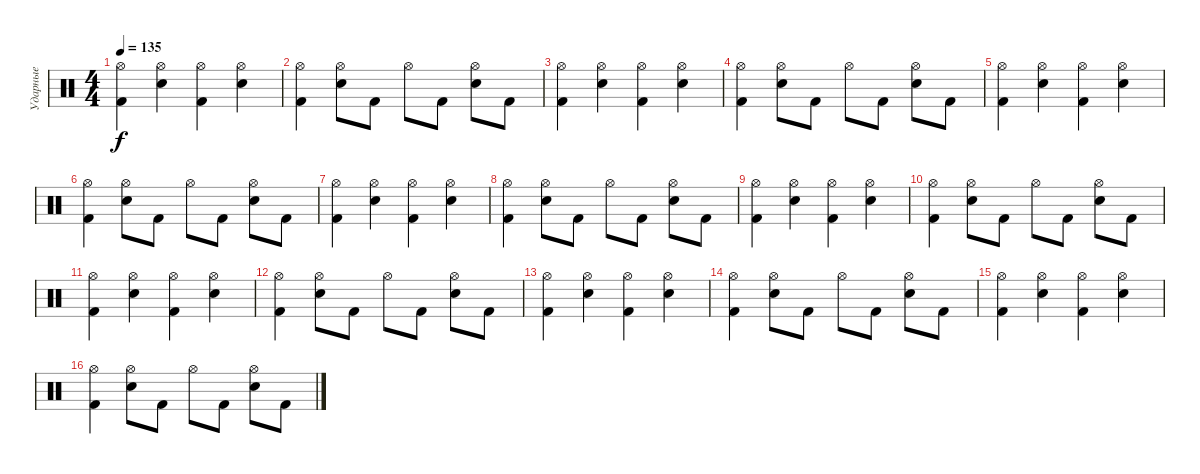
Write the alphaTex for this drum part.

\track ("Ударные" "Ударные") {instrument percussion}
\staff {score}
\articulation defaults
\ts (4 4)
\tempo 135
\clef neutral
\ks c
("Kick (hit) 2" "Hi-Hat (open)").4{dy f} ("Electric Snare (hit)" "Hi-Hat (open)").4 ("Kick (hit) 2" "Hi-Hat (open)").4 ("Electric Snare (hit)" "Hi-Hat (open)").4 |
("Kick (hit) 2" "Hi-Hat (open)").4 ("Electric Snare (hit)" "Hi-Hat (open)").8 "Kick (hit) 2".8 "Hi-Hat (open)".8 "Kick (hit) 2".8 ("Electric Snare (hit)" "Hi-Hat (open)").8 "Kick (hit) 2".8 |
("Kick (hit) 2" "Hi-Hat (open)").4 ("Electric Snare (hit)" "Hi-Hat (open)").4 ("Kick (hit) 2" "Hi-Hat (open)").4 ("Electric Snare (hit)" "Hi-Hat (open)").4 |
("Kick (hit) 2" "Hi-Hat (open)").4 ("Electric Snare (hit)" "Hi-Hat (open)").8 "Kick (hit) 2".8 "Hi-Hat (open)".8 "Kick (hit) 2".8 ("Electric Snare (hit)" "Hi-Hat (open)").8 "Kick (hit) 2".8 |
("Kick (hit) 2" "Hi-Hat (open)").4 ("Electric Snare (hit)" "Hi-Hat (open)").4 ("Kick (hit) 2" "Hi-Hat (open)").4 ("Electric Snare (hit)" "Hi-Hat (open)").4 |
("Kick (hit) 2" "Hi-Hat (open)").4 ("Electric Snare (hit)" "Hi-Hat (open)").8 "Kick (hit) 2".8 "Hi-Hat (open)".8 "Kick (hit) 2".8 ("Electric Snare (hit)" "Hi-Hat (open)").8 "Kick (hit) 2".8 |
("Kick (hit) 2" "Hi-Hat (open)").4 ("Electric Snare (hit)" "Hi-Hat (open)").4 ("Kick (hit) 2" "Hi-Hat (open)").4 ("Electric Snare (hit)" "Hi-Hat (open)").4 |
("Kick (hit) 2" "Hi-Hat (open)").4 ("Electric Snare (hit)" "Hi-Hat (open)").8 "Kick (hit) 2".8 "Hi-Hat (open)".8 "Kick (hit) 2".8 ("Electric Snare (hit)" "Hi-Hat (open)").8 "Kick (hit) 2".8 |
("Kick (hit) 2" "Hi-Hat (open)").4 ("Electric Snare (hit)" "Hi-Hat (open)").4 ("Kick (hit) 2" "Hi-Hat (open)").4 ("Electric Snare (hit)" "Hi-Hat (open)").4 |
("Kick (hit) 2" "Hi-Hat (open)").4 ("Electric Snare (hit)" "Hi-Hat (open)").8 "Kick (hit) 2".8 "Hi-Hat (open)".8 "Kick (hit) 2".8 ("Electric Snare (hit)" "Hi-Hat (open)").8 "Kick (hit) 2".8 |
("Kick (hit) 2" "Hi-Hat (open)").4 ("Electric Snare (hit)" "Hi-Hat (open)").4 ("Kick (hit) 2" "Hi-Hat (open)").4 ("Electric Snare (hit)" "Hi-Hat (open)").4 |
("Kick (hit) 2" "Hi-Hat (open)").4 ("Electric Snare (hit)" "Hi-Hat (open)").8 "Kick (hit) 2".8 "Hi-Hat (open)".8 "Kick (hit) 2".8 ("Electric Snare (hit)" "Hi-Hat (open)").8 "Kick (hit) 2".8 |
("Kick (hit) 2" "Hi-Hat (open)").4 ("Electric Snare (hit)" "Hi-Hat (open)").4 ("Kick (hit) 2" "Hi-Hat (open)").4 ("Electric Snare (hit)" "Hi-Hat (open)").4 |
("Kick (hit) 2" "Hi-Hat (open)").4 ("Electric Snare (hit)" "Hi-Hat (open)").8 "Kick (hit) 2".8 "Hi-Hat (open)".8 "Kick (hit) 2".8 ("Electric Snare (hit)" "Hi-Hat (open)").8 "Kick (hit) 2".8 |
("Kick (hit) 2" "Hi-Hat (open)").4 ("Electric Snare (hit)" "Hi-Hat (open)").4 ("Kick (hit) 2" "Hi-Hat (open)").4 ("Electric Snare (hit)" "Hi-Hat (open)").4 |
("Kick (hit) 2" "Hi-Hat (open)").4 ("Electric Snare (hit)" "Hi-Hat (open)").8 "Kick (hit) 2".8 "Hi-Hat (open)".8 "Kick (hit) 2".8 ("Electric Snare (hit)" "Hi-Hat (open)").8 "Kick (hit) 2".8
